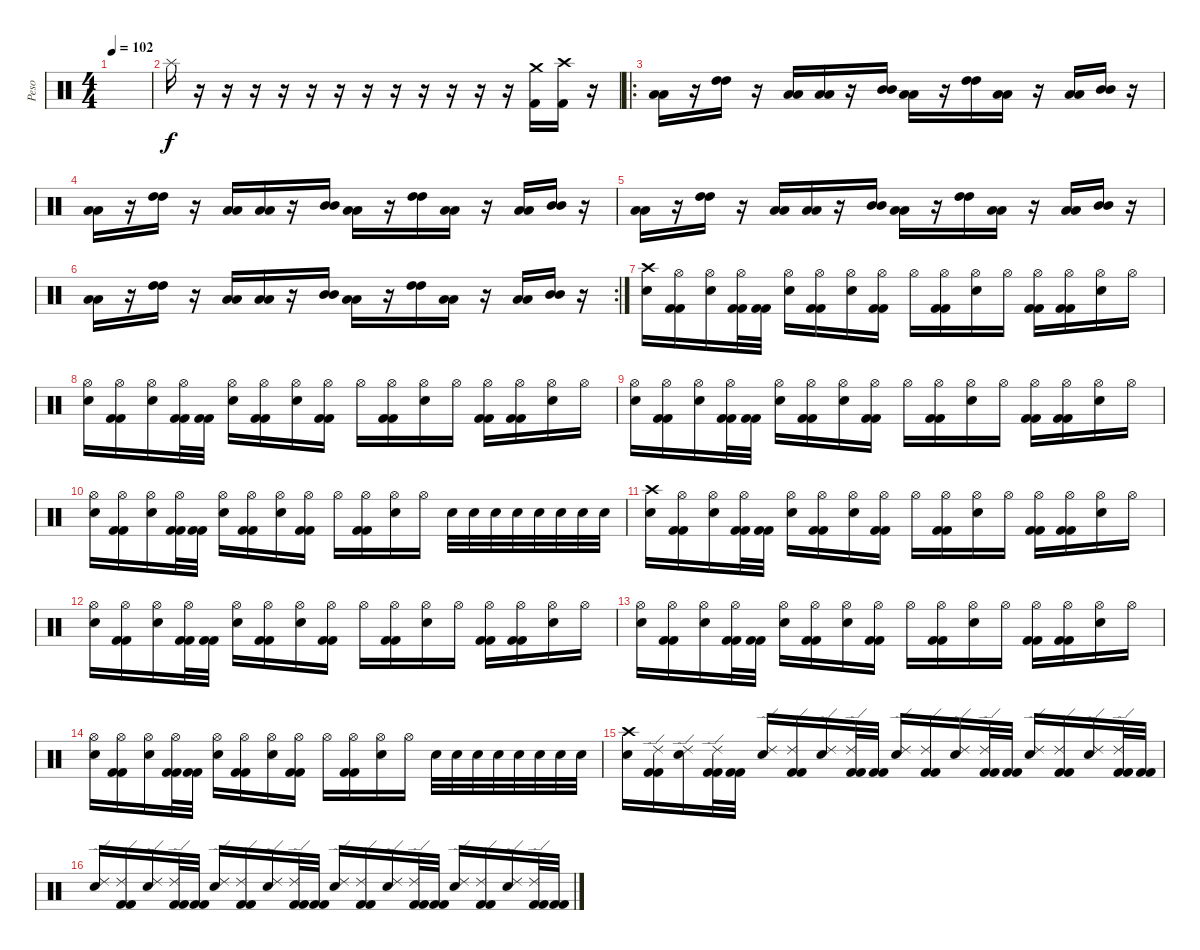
\track ("Peso" "Peso") {instrument percussion}
\staff {score}
\articulation defaults
\ts (4 4)
\tempo 102
\clef neutral
\ks c
|
"Splash (hit)".16 r.16 r.16 r.16 r.16 r.16 r.16 r.16 r.16 r.16 r.16 r.16 r.16 ("Crash medium (hit)" "Kick (hit) 2").16 ("Crash high (hit)" "Kick (hit) 2").16 r.16 |
\ro
("Low Floor Tom (hit)" "Low Floor Tom (hit)").16{volume 16} r.16 ("High Tom (hit)" "High Tom (hit)").16 r.16 ("Low Floor Tom (hit)" "Low Floor Tom (hit)").16 ("Low Floor Tom (hit)" "Low Floor Tom (hit)").16 r.16 ("Mid Tom (hit)" "Mid Tom (hit)").16 ("Low Floor Tom (hit)" "Low Floor Tom (hit)").16 r.16 ("High Tom (hit)" "High Tom (hit)").16 ("Low Floor Tom (hit)" "Low Floor Tom (hit)").16 r.16 ("Low Floor Tom (hit)" "Low Floor Tom (hit)").16 ("Mid Tom (hit)" "Mid Tom (hit)").16 r.16 |
("Low Floor Tom (hit)" "Low Floor Tom (hit)").16{volume 16} r.16 ("High Tom (hit)" "High Tom (hit)").16 r.16 ("Low Floor Tom (hit)" "Low Floor Tom (hit)").16 ("Low Floor Tom (hit)" "Low Floor Tom (hit)").16 r.16 ("Mid Tom (hit)" "Mid Tom (hit)").16 ("Low Floor Tom (hit)" "Low Floor Tom (hit)").16 r.16 ("High Tom (hit)" "High Tom (hit)").16 ("Low Floor Tom (hit)" "Low Floor Tom (hit)").16 r.16 ("Low Floor Tom (hit)" "Low Floor Tom (hit)").16 ("Mid Tom (hit)" "Mid Tom (hit)").16 r.16 |
("Low Floor Tom (hit)" "Low Floor Tom (hit)").16{volume 16} r.16 ("High Tom (hit)" "High Tom (hit)").16 r.16 ("Low Floor Tom (hit)" "Low Floor Tom (hit)").16 ("Low Floor Tom (hit)" "Low Floor Tom (hit)").16 r.16 ("Mid Tom (hit)" "Mid Tom (hit)").16 ("Low Floor Tom (hit)" "Low Floor Tom (hit)").16 r.16 ("High Tom (hit)" "High Tom (hit)").16 ("Low Floor Tom (hit)" "Low Floor Tom (hit)").16 r.16 ("Low Floor Tom (hit)" "Low Floor Tom (hit)").16 ("Mid Tom (hit)" "Mid Tom (hit)").16 r.16 |
\rc 2
("Low Floor Tom (hit)" "Low Floor Tom (hit)").16{volume 16} r.16 ("High Tom (hit)" "High Tom (hit)").16 r.16 ("Low Floor Tom (hit)" "Low Floor Tom (hit)").16 ("Low Floor Tom (hit)" "Low Floor Tom (hit)").16 r.16 ("Mid Tom (hit)" "Mid Tom (hit)").16 ("Low Floor Tom (hit)" "Low Floor Tom (hit)").16 r.16 ("High Tom (hit)" "High Tom (hit)").16 ("Low Floor Tom (hit)" "Low Floor Tom (hit)").16 r.16 ("Low Floor Tom (hit)" "Low Floor Tom (hit)").16 ("Mid Tom (hit)" "Mid Tom (hit)").16 r.16 |
("Crash high (hit)" "Electric Snare (hit)").16 ("Hi-Hat (open)" "Kick (hit) 2" "Kick (hit) 2").16 ("Hi-Hat (open)" "Electric Snare (hit)").16 ("Hi-Hat (open)" "Kick (hit) 2" "Kick (hit) 2").32 ("Kick (hit) 2" "Kick (hit) 2").32 ("Hi-Hat (open)" "Electric Snare (hit)").16 ("Hi-Hat (open)" "Kick (hit) 2" "Kick (hit) 2").16 ("Hi-Hat (open)" "Electric Snare (hit)").16 ("Hi-Hat (open)" "Kick (hit) 2" "Kick (hit) 2").16 "Hi-Hat (open)".16 ("Hi-Hat (open)" "Kick (hit) 2" "Kick (hit) 2").16 ("Hi-Hat (open)" "Electric Snare (hit)").16 "Hi-Hat (open)".16 ("Hi-Hat (open)" "Kick (hit) 2" "Kick (hit) 2").16 ("Hi-Hat (open)" "Kick (hit) 2" "Kick (hit) 2").16 ("Hi-Hat (open)" "Electric Snare (hit)").16 "Hi-Hat (open)".16 |
("Hi-Hat (open)" "Electric Snare (hit)").16 ("Hi-Hat (open)" "Kick (hit) 2" "Kick (hit) 2").16 ("Hi-Hat (open)" "Electric Snare (hit)").16 ("Hi-Hat (open)" "Kick (hit) 2" "Kick (hit) 2").32 ("Kick (hit) 2" "Kick (hit) 2").32 ("Hi-Hat (open)" "Electric Snare (hit)").16 ("Hi-Hat (open)" "Kick (hit) 2" "Kick (hit) 2").16 ("Hi-Hat (open)" "Electric Snare (hit)").16 ("Hi-Hat (open)" "Kick (hit) 2" "Kick (hit) 2").16 "Hi-Hat (open)".16 ("Hi-Hat (open)" "Kick (hit) 2" "Kick (hit) 2").16 ("Hi-Hat (open)" "Electric Snare (hit)").16 "Hi-Hat (open)".16 ("Hi-Hat (open)" "Kick (hit) 2" "Kick (hit) 2").16 ("Hi-Hat (open)" "Kick (hit) 2" "Kick (hit) 2").16 ("Hi-Hat (open)" "Electric Snare (hit)").16 "Hi-Hat (open)".16 |
("Hi-Hat (open)" "Electric Snare (hit)").16 ("Hi-Hat (open)" "Kick (hit) 2" "Kick (hit) 2").16 ("Hi-Hat (open)" "Electric Snare (hit)").16 ("Hi-Hat (open)" "Kick (hit) 2" "Kick (hit) 2").32 ("Kick (hit) 2" "Kick (hit) 2").32 ("Hi-Hat (open)" "Electric Snare (hit)").16 ("Hi-Hat (open)" "Kick (hit) 2" "Kick (hit) 2").16 ("Hi-Hat (open)" "Electric Snare (hit)").16 ("Hi-Hat (open)" "Kick (hit) 2" "Kick (hit) 2").16 "Hi-Hat (open)".16 ("Hi-Hat (open)" "Kick (hit) 2" "Kick (hit) 2").16 ("Hi-Hat (open)" "Electric Snare (hit)").16 "Hi-Hat (open)".16 ("Hi-Hat (open)" "Kick (hit) 2" "Kick (hit) 2").16 ("Hi-Hat (open)" "Kick (hit) 2" "Kick (hit) 2").16 ("Hi-Hat (open)" "Electric Snare (hit)").16 "Hi-Hat (open)".16 |
("Hi-Hat (open)" "Electric Snare (hit)").16 ("Hi-Hat (open)" "Kick (hit) 2" "Kick (hit) 2").16 ("Hi-Hat (open)" "Electric Snare (hit)").16 ("Hi-Hat (open)" "Kick (hit) 2" "Kick (hit) 2").32 ("Kick (hit) 2" "Kick (hit) 2").32 ("Hi-Hat (open)" "Electric Snare (hit)").16 ("Hi-Hat (open)" "Kick (hit) 2" "Kick (hit) 2").16 ("Hi-Hat (open)" "Electric Snare (hit)").16 ("Hi-Hat (open)" "Kick (hit) 2" "Kick (hit) 2").16 "Hi-Hat (open)".16 ("Hi-Hat (open)" "Kick (hit) 2" "Kick (hit) 2").16 ("Hi-Hat (open)" "Electric Snare (hit)").16 "Hi-Hat (open)".16 "Electric Snare (hit)".32 "Electric Snare (hit)".32 "Electric Snare (hit)".32 "Electric Snare (hit)".32 "Electric Snare (hit)".32 "Electric Snare (hit)".32 "Electric Snare (hit)".32 "Electric Snare (hit)".32 |
("Crash high (hit)" "Electric Snare (hit)").16 ("Hi-Hat (open)" "Kick (hit) 2" "Kick (hit) 2").16 ("Hi-Hat (open)" "Electric Snare (hit)").16 ("Hi-Hat (open)" "Kick (hit) 2" "Kick (hit) 2").32 ("Kick (hit) 2" "Kick (hit) 2").32 ("Hi-Hat (open)" "Electric Snare (hit)").16 ("Hi-Hat (open)" "Kick (hit) 2" "Kick (hit) 2").16 ("Hi-Hat (open)" "Electric Snare (hit)").16 ("Hi-Hat (open)" "Kick (hit) 2" "Kick (hit) 2").16 "Hi-Hat (open)".16 ("Hi-Hat (open)" "Kick (hit) 2" "Kick (hit) 2").16 ("Hi-Hat (open)" "Electric Snare (hit)").16 "Hi-Hat (open)".16 ("Hi-Hat (open)" "Kick (hit) 2" "Kick (hit) 2").16 ("Hi-Hat (open)" "Kick (hit) 2" "Kick (hit) 2").16 ("Hi-Hat (open)" "Electric Snare (hit)").16 "Hi-Hat (open)".16 |
("Hi-Hat (open)" "Electric Snare (hit)").16 ("Hi-Hat (open)" "Kick (hit) 2" "Kick (hit) 2").16 ("Hi-Hat (open)" "Electric Snare (hit)").16 ("Hi-Hat (open)" "Kick (hit) 2" "Kick (hit) 2").32 ("Kick (hit) 2" "Kick (hit) 2").32 ("Hi-Hat (open)" "Electric Snare (hit)").16 ("Hi-Hat (open)" "Kick (hit) 2" "Kick (hit) 2").16 ("Hi-Hat (open)" "Electric Snare (hit)").16 ("Hi-Hat (open)" "Kick (hit) 2" "Kick (hit) 2").16 "Hi-Hat (open)".16 ("Hi-Hat (open)" "Kick (hit) 2" "Kick (hit) 2").16 ("Hi-Hat (open)" "Electric Snare (hit)").16 "Hi-Hat (open)".16 ("Hi-Hat (open)" "Kick (hit) 2" "Kick (hit) 2").16 ("Hi-Hat (open)" "Kick (hit) 2" "Kick (hit) 2").16 ("Hi-Hat (open)" "Electric Snare (hit)").16 "Hi-Hat (open)".16 |
("Hi-Hat (open)" "Electric Snare (hit)").16 ("Hi-Hat (open)" "Kick (hit) 2" "Kick (hit) 2").16 ("Hi-Hat (open)" "Electric Snare (hit)").16 ("Hi-Hat (open)" "Kick (hit) 2" "Kick (hit) 2").32 ("Kick (hit) 2" "Kick (hit) 2").32 ("Hi-Hat (open)" "Electric Snare (hit)").16 ("Hi-Hat (open)" "Kick (hit) 2" "Kick (hit) 2").16 ("Hi-Hat (open)" "Electric Snare (hit)").16 ("Hi-Hat (open)" "Kick (hit) 2" "Kick (hit) 2").16 "Hi-Hat (open)".16 ("Hi-Hat (open)" "Kick (hit) 2" "Kick (hit) 2").16 ("Hi-Hat (open)" "Electric Snare (hit)").16 "Hi-Hat (open)".16 ("Hi-Hat (open)" "Kick (hit) 2" "Kick (hit) 2").16 ("Hi-Hat (open)" "Kick (hit) 2" "Kick (hit) 2").16 ("Hi-Hat (open)" "Electric Snare (hit)").16 "Hi-Hat (open)".16 |
("Hi-Hat (open)" "Electric Snare (hit)").16 ("Hi-Hat (open)" "Kick (hit) 2" "Kick (hit) 2").16 ("Hi-Hat (open)" "Electric Snare (hit)").16 ("Hi-Hat (open)" "Kick (hit) 2" "Kick (hit) 2").32 ("Kick (hit) 2" "Kick (hit) 2").32 ("Hi-Hat (open)" "Electric Snare (hit)").16 ("Hi-Hat (open)" "Kick (hit) 2" "Kick (hit) 2").16 ("Hi-Hat (open)" "Electric Snare (hit)").16 ("Hi-Hat (open)" "Kick (hit) 2" "Kick (hit) 2").16 "Hi-Hat (open)".16 ("Hi-Hat (open)" "Kick (hit) 2" "Kick (hit) 2").16 ("Hi-Hat (open)" "Electric Snare (hit)").16 "Hi-Hat (open)".16 "Electric Snare (hit)".32 "Electric Snare (hit)".32 "Electric Snare (hit)".32 "Electric Snare (hit)".32 "Electric Snare (hit)".32 "Electric Snare (hit)".32 "Electric Snare (hit)".32 "Electric Snare (hit)".32 |
("Crash high (hit)" "Electric Snare (hit)").16 ("Ride (edge) 2" "Kick (hit) 2" "Kick (hit) 2").16 ("Ride (edge) 2" "Electric Snare (hit)").16 ("Ride (edge) 2" "Kick (hit) 2" "Kick (hit) 2").32 ("Kick (hit) 2" "Kick (hit) 2").32 ("Ride (edge) 2" "Electric Snare (hit)").16 ("Ride (edge) 2" "Kick (hit) 2" "Kick (hit) 2").16 ("Ride (edge) 2" "Electric Snare (hit)").16 ("Ride (edge) 2" "Kick (hit) 2" "Kick (hit) 2").32 ("Kick (hit) 2" "Kick (hit) 2").32 ("Ride (edge) 2" "Electric Snare (hit)").16 ("Ride (edge) 2" "Kick (hit) 2" "Kick (hit) 2").16 ("Ride (edge) 2" "Electric Snare (hit)").16 ("Ride (edge) 2" "Kick (hit) 2" "Kick (hit) 2").32 ("Kick (hit) 2" "Kick (hit) 2").32 ("Ride (edge) 2" "Electric Snare (hit)").16 ("Ride (edge) 2" "Kick (hit) 2" "Kick (hit) 2").16 ("Ride (edge) 2" "Electric Snare (hit)").16 ("Ride (edge) 2" "Kick (hit) 2" "Kick (hit) 2").32 ("Kick (hit) 2" "Kick (hit) 2").32 |
("Ride (edge) 2" "Electric Snare (hit)").16 ("Ride (edge) 2" "Kick (hit) 2" "Kick (hit) 2").16 ("Ride (edge) 2" "Electric Snare (hit)").16 ("Ride (edge) 2" "Kick (hit) 2" "Kick (hit) 2").32 ("Kick (hit) 2" "Kick (hit) 2").32 ("Ride (edge) 2" "Electric Snare (hit)").16 ("Ride (edge) 2" "Kick (hit) 2" "Kick (hit) 2").16 ("Ride (edge) 2" "Electric Snare (hit)").16 ("Ride (edge) 2" "Kick (hit) 2" "Kick (hit) 2").32 ("Kick (hit) 2" "Kick (hit) 2").32 ("Ride (edge) 2" "Electric Snare (hit)").16 ("Ride (edge) 2" "Kick (hit) 2" "Kick (hit) 2").16 ("Ride (edge) 2" "Electric Snare (hit)").16 ("Ride (edge) 2" "Kick (hit) 2" "Kick (hit) 2").32 ("Kick (hit) 2" "Kick (hit) 2").32 ("Ride (edge) 2" "Electric Snare (hit)").16 ("Ride (edge) 2" "Kick (hit) 2" "Kick (hit) 2").16 ("Ride (edge) 2" "Electric Snare (hit)").16 ("Ride (edge) 2" "Kick (hit) 2" "Kick (hit) 2").32 ("Kick (hit) 2" "Kick (hit) 2").32
